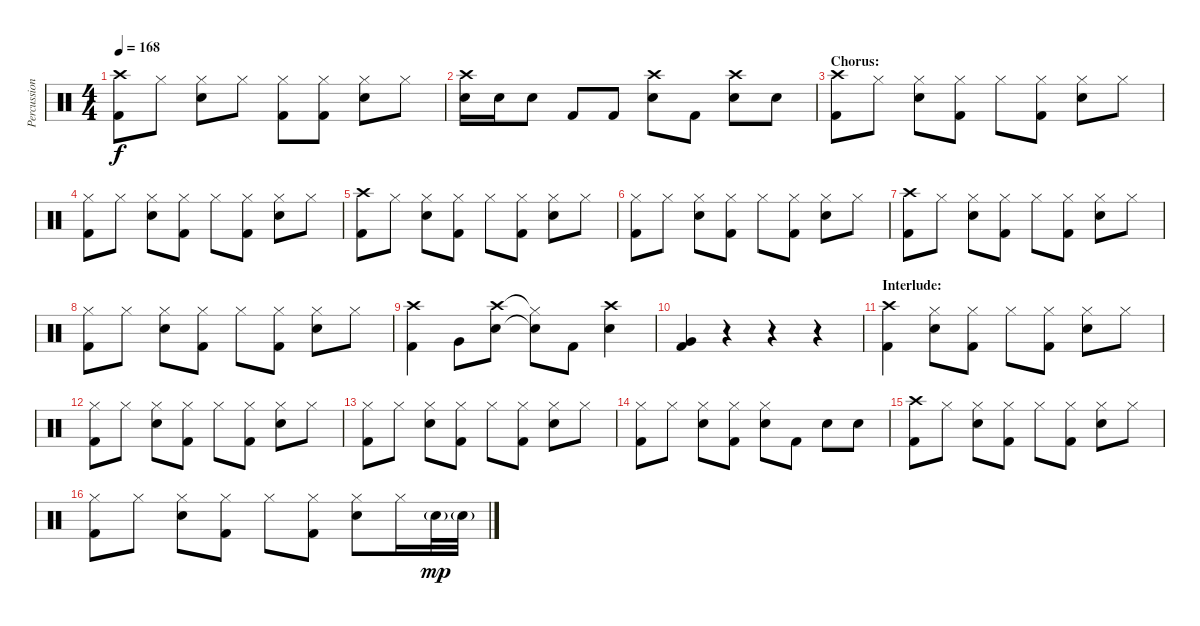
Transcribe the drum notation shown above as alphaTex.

\track ("Percussion" "Percussion") {instrument percussion}
\staff {score}
\articulation defaults
\ts (4 4)
\tempo 168
\clef neutral
\ks c
("Crash high (hit)" "Kick (hit) 2").8{dy f} "Hi-Hat (closed)".8 ("Hi-Hat (closed)" "Snare (hit) 2").8 "Hi-Hat (closed)".8 ("Hi-Hat (closed)" "Kick (hit) 2").8 ("Hi-Hat (closed)" "Kick (hit) 2").8 ("Hi-Hat (closed)" "Snare (hit) 2").8 "Hi-Hat (closed)".8 |
("Crash high (hit)" "Snare (hit) 2").16 "Snare (hit) 2".16 "Snare (hit) 2".8 "Kick (hit) 2".8 "Kick (hit) 2".8 ("Crash high (hit)" "Snare (hit) 2").8 "Kick (hit) 2".8 ("Crash high (hit)" "Snare (hit) 2").8 "Snare (hit) 2".8 |
\section ("" "Chorus:")
("Crash high (hit)" "Kick (hit) 2").8 "Hi-Hat (closed)".8 ("Hi-Hat (closed)" "Snare (hit) 2").8 ("Hi-Hat (closed)" "Kick (hit) 2").8 "Hi-Hat (closed)".8 ("Hi-Hat (closed)" "Kick (hit) 2").8 ("Hi-Hat (closed)" "Snare (hit) 2").8 "Hi-Hat (closed)".8 |
("Hi-Hat (closed)" "Kick (hit) 2").8 "Hi-Hat (closed)".8 ("Hi-Hat (closed)" "Snare (hit) 2").8 ("Hi-Hat (closed)" "Kick (hit) 2").8 "Hi-Hat (closed)".8 ("Hi-Hat (closed)" "Kick (hit) 2").8 ("Hi-Hat (closed)" "Snare (hit) 2").8 "Hi-Hat (closed)".8 |
("Crash high (hit)" "Kick (hit) 2").8 "Hi-Hat (closed)".8 ("Hi-Hat (closed)" "Snare (hit) 2").8 ("Hi-Hat (closed)" "Kick (hit) 2").8 "Hi-Hat (closed)".8 ("Hi-Hat (closed)" "Kick (hit) 2").8 ("Hi-Hat (closed)" "Snare (hit) 2").8 "Hi-Hat (closed)".8 |
("Hi-Hat (closed)" "Kick (hit) 2").8 "Hi-Hat (closed)".8 ("Hi-Hat (closed)" "Snare (hit) 2").8 ("Hi-Hat (closed)" "Kick (hit) 2").8 "Hi-Hat (closed)".8 ("Hi-Hat (closed)" "Kick (hit) 2").8 ("Hi-Hat (closed)" "Snare (hit) 2").8 "Hi-Hat (closed)".8 |
("Crash high (hit)" "Kick (hit) 2").8 "Hi-Hat (closed)".8 ("Hi-Hat (closed)" "Snare (hit) 2").8 ("Hi-Hat (closed)" "Kick (hit) 2").8 "Hi-Hat (closed)".8 ("Hi-Hat (closed)" "Kick (hit) 2").8 ("Hi-Hat (closed)" "Snare (hit) 2").8 "Hi-Hat (closed)".8 |
("Hi-Hat (closed)" "Kick (hit) 2").8 "Hi-Hat (closed)".8 ("Hi-Hat (closed)" "Snare (hit) 2").8 ("Hi-Hat (closed)" "Kick (hit) 2").8 "Hi-Hat (closed)".8 ("Hi-Hat (closed)" "Kick (hit) 2").8 ("Hi-Hat (closed)" "Snare (hit) 2").8 "Hi-Hat (closed)".8 |
("Crash high (hit)" "Kick (hit) 2").4 "Very Low Tom (hit)".8 ("Crash high (hit)" "Snare (hit) 2").8 ("Hi-Hat (closed)"{t} "Snare (hit)"{t}).8 "Kick (hit) 2".8 ("Crash high (hit)" "Snare (hit) 2").4 |
("Very Low Tom (hit)" "Kick (hit) 2").4 r.4 r.4 r.4 |
\section ("" "Interlude:")
("Crash high (hit)" "Kick (hit) 2").4 ("Hi-Hat (closed)" "Snare (hit) 2").8 ("Hi-Hat (closed)" "Kick (hit) 2").8 "Hi-Hat (closed)".8 ("Hi-Hat (closed)" "Kick (hit) 2").8 ("Hi-Hat (closed)" "Snare (hit) 2").8 "Hi-Hat (closed)".8 |
("Hi-Hat (closed)" "Kick (hit) 2").8 "Hi-Hat (closed)".8 ("Hi-Hat (closed)" "Snare (hit) 2").8 ("Hi-Hat (closed)" "Kick (hit) 2").8 "Hi-Hat (closed)".8 ("Hi-Hat (closed)" "Kick (hit) 2").8 ("Hi-Hat (closed)" "Snare (hit) 2").8 "Hi-Hat (closed)".8 |
("Hi-Hat (closed)" "Kick (hit) 2").8 "Hi-Hat (closed)".8 ("Hi-Hat (closed)" "Snare (hit) 2").8 ("Hi-Hat (closed)" "Kick (hit) 2").8 "Hi-Hat (closed)".8 ("Hi-Hat (closed)" "Kick (hit) 2").8 ("Hi-Hat (closed)" "Snare (hit) 2").8 "Hi-Hat (closed)".8 |
("Hi-Hat (closed)" "Kick (hit) 2").8 "Hi-Hat (closed)".8 ("Hi-Hat (closed)" "Snare (hit) 2").8 ("Hi-Hat (closed)" "Kick (hit) 2").8 ("Hi-Hat (closed)" "Snare (hit) 2").8 "Kick (hit) 2".8 "Snare (hit) 2".8 "Snare (hit) 2".8 |
("Crash high (hit)" "Kick (hit) 2").8 "Hi-Hat (closed)".8 ("Hi-Hat (closed)" "Snare (hit) 2").8 ("Hi-Hat (closed)" "Kick (hit) 2").8 "Hi-Hat (closed)".8 ("Hi-Hat (closed)" "Kick (hit) 2").8 ("Hi-Hat (closed)" "Snare (hit) 2").8 "Hi-Hat (closed)".8 |
("Hi-Hat (closed)" "Kick (hit) 2").8 "Hi-Hat (closed)".8 ("Hi-Hat (closed)" "Snare (hit) 2").8 ("Hi-Hat (closed)" "Kick (hit) 2").8 "Hi-Hat (closed)".8 ("Hi-Hat (closed)" "Kick (hit) 2").8 ("Hi-Hat (closed)" "Snare (hit) 2").8 "Hi-Hat (closed)".16 "Snare (hit) 2"{g}.32{dy mp} "Snare (hit) 2"{g}.32
